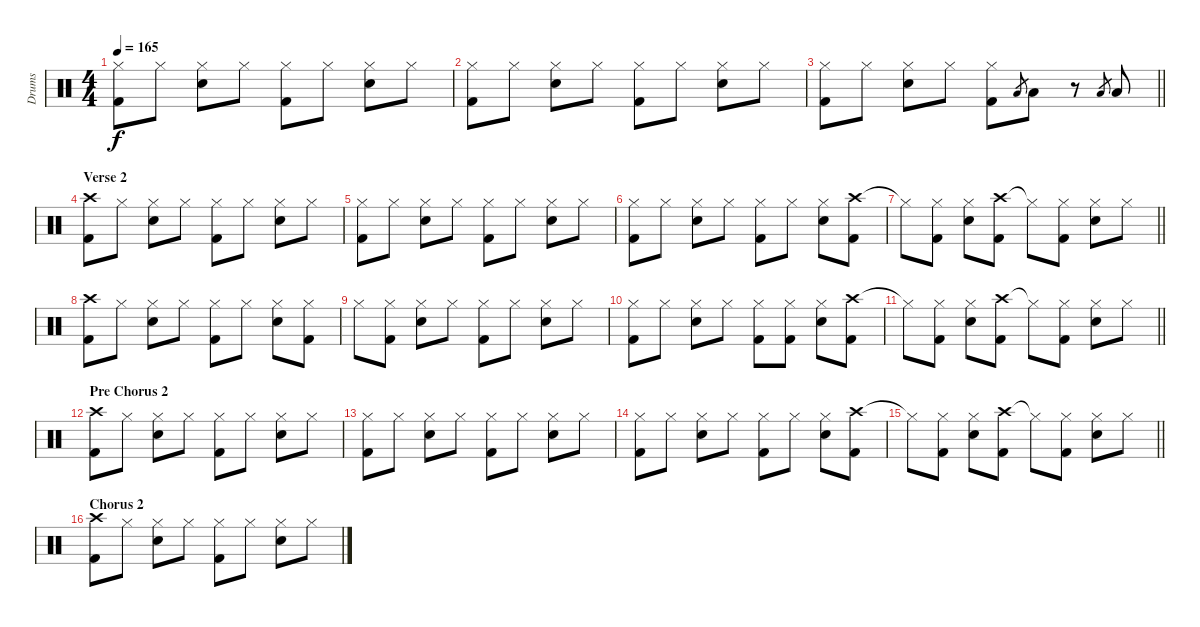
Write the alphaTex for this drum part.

\track ("Drums" "Drums") {instrument percussion}
\staff {score}
\articulation defaults
\ts (4 4)
\tempo 165
\clef neutral
\ks c
("Hi-Hat (closed)" "Kick (hit) 2").8{dy f} "Hi-Hat (closed)".8 ("Hi-Hat (closed)" "Snare (hit) 2").8 "Hi-Hat (closed)".8 ("Hi-Hat (closed)" "Kick (hit) 2").8 "Hi-Hat (closed)".8 ("Hi-Hat (closed)" "Snare (hit) 2").8 "Hi-Hat (closed)".8 |
("Hi-Hat (closed)" "Kick (hit) 2").8 "Hi-Hat (closed)".8 ("Hi-Hat (closed)" "Snare (hit) 2").8 "Hi-Hat (closed)".8 ("Hi-Hat (closed)" "Kick (hit) 2").8 "Hi-Hat (closed)".8 ("Hi-Hat (closed)" "Snare (hit) 2").8 "Hi-Hat (closed)".8 |
\barLineRight lightlight
("Hi-Hat (closed)" "Kick (hit) 2").8 "Hi-Hat (closed)".8 ("Hi-Hat (closed)" "Snare (hit) 2").8 "Hi-Hat (closed)".8 ("Hi-Hat (closed)" "Kick (hit) 2").8 "Low Tom (hit)".8{gr} "Low Tom (hit)".8 r.8 "Low Tom (hit)".8{gr} "Low Tom (hit)".8 |
\section ("" "Verse 2")
("Crash high (hit)" "Kick (hit) 2").8 "Hi-Hat (closed)".8 ("Hi-Hat (closed)" "Snare (hit) 2").8 "Hi-Hat (closed)".8 ("Hi-Hat (closed)" "Kick (hit) 2").8 "Hi-Hat (closed)".8 ("Hi-Hat (closed)" "Snare (hit) 2").8 "Hi-Hat (closed)".8 |
("Hi-Hat (closed)" "Kick (hit) 2").8 "Hi-Hat (closed)".8 ("Hi-Hat (closed)" "Snare (hit) 2").8 "Hi-Hat (closed)".8 ("Hi-Hat (closed)" "Kick (hit) 2").8 "Hi-Hat (closed)".8 ("Hi-Hat (closed)" "Snare (hit) 2").8 "Hi-Hat (closed)".8 |
("Hi-Hat (closed)" "Kick (hit) 2").8 "Hi-Hat (closed)".8 ("Hi-Hat (closed)" "Snare (hit) 2").8 "Hi-Hat (closed)".8 ("Hi-Hat (closed)" "Kick (hit) 2").8 "Hi-Hat (closed)".8 ("Hi-Hat (closed)" "Snare (hit) 2").8 ("Crash high (hit)" "Kick (hit) 2").8 |
\barLineRight lightlight "Hi-Hat (closed)"{t}.8
("Hi-Hat (closed)" "Kick (hit) 2").8 ("Hi-Hat (closed)" "Snare (hit) 2").8 ("Crash high (hit)" "Kick (hit) 2").8 "Hi-Hat (closed)"{t}.8 ("Hi-Hat (closed)" "Kick (hit) 2").8 ("Hi-Hat (closed)" "Snare (hit) 2").8 "Hi-Hat (closed)".8 |
("Crash high (hit)" "Kick (hit) 2").8 "Hi-Hat (closed)".8 ("Hi-Hat (closed)" "Snare (hit) 2").8 "Hi-Hat (closed)".8 ("Hi-Hat (closed)" "Kick (hit) 2").8 "Hi-Hat (closed)".8 ("Hi-Hat (closed)" "Snare (hit) 2").8 ("Hi-Hat (closed)" "Kick (hit) 2").8 |
"Hi-Hat (closed)".8 ("Hi-Hat (closed)" "Kick (hit) 2").8 ("Hi-Hat (closed)" "Snare (hit) 2").8 "Hi-Hat (closed)".8 ("Hi-Hat (closed)" "Kick (hit) 2").8 "Hi-Hat (closed)".8 ("Hi-Hat (closed)" "Snare (hit) 2").8 "Hi-Hat (closed)".8 |
("Hi-Hat (closed)" "Kick (hit) 2").8 "Hi-Hat (closed)".8 ("Hi-Hat (closed)" "Snare (hit) 2").8 "Hi-Hat (closed)".8 ("Hi-Hat (closed)" "Kick (hit) 2").8 ("Hi-Hat (closed)" "Kick (hit) 2").8 ("Hi-Hat (closed)" "Snare (hit) 2").8 ("Crash high (hit)" "Kick (hit) 2").8 |
\barLineRight lightlight "Hi-Hat (closed)"{t}.8
("Hi-Hat (closed)" "Kick (hit) 2").8 ("Hi-Hat (closed)" "Snare (hit) 2").8 ("Crash high (hit)" "Kick (hit) 2").8 "Hi-Hat (closed)"{t}.8 ("Hi-Hat (closed)" "Kick (hit) 2").8 ("Hi-Hat (closed)" "Snare (hit) 2").8 "Hi-Hat (closed)".8 |
\section ("" "Pre Chorus 2")
("Crash high (hit)" "Kick (hit) 2").8 "Hi-Hat (closed)".8 ("Hi-Hat (closed)" "Snare (hit) 2").8 "Hi-Hat (closed)".8 ("Hi-Hat (closed)" "Kick (hit) 2").8 "Hi-Hat (closed)".8 ("Hi-Hat (closed)" "Snare (hit) 2").8 "Hi-Hat (closed)".8 |
("Hi-Hat (closed)" "Kick (hit) 2").8 "Hi-Hat (closed)".8 ("Hi-Hat (closed)" "Snare (hit) 2").8 "Hi-Hat (closed)".8 ("Hi-Hat (closed)" "Kick (hit) 2").8 "Hi-Hat (closed)".8 ("Hi-Hat (closed)" "Snare (hit) 2").8 "Hi-Hat (closed)".8 |
("Hi-Hat (closed)" "Kick (hit) 2").8 "Hi-Hat (closed)".8 ("Hi-Hat (closed)" "Snare (hit) 2").8 "Hi-Hat (closed)".8 ("Hi-Hat (closed)" "Kick (hit) 2").8 "Hi-Hat (closed)".8 ("Hi-Hat (closed)" "Snare (hit) 2").8 ("Crash high (hit)" "Kick (hit) 2").8 |
\barLineRight lightlight "Hi-Hat (closed)"{t}.8
("Hi-Hat (closed)" "Kick (hit) 2").8 ("Hi-Hat (closed)" "Snare (hit) 2").8 ("Crash high (hit)" "Kick (hit) 2").8 "Hi-Hat (closed)"{t}.8 ("Hi-Hat (closed)" "Kick (hit) 2").8 ("Hi-Hat (closed)" "Snare (hit) 2").8 "Hi-Hat (closed)".8 |
\section ("" "Chorus 2")
("Crash high (hit)" "Kick (hit) 2").8 "Hi-Hat (closed)".8 ("Hi-Hat (closed)" "Snare (hit) 2").8 "Hi-Hat (closed)".8 ("Hi-Hat (closed)" "Kick (hit) 2").8 "Hi-Hat (closed)".8 ("Hi-Hat (closed)" "Snare (hit) 2").8 "Hi-Hat (closed)".8
